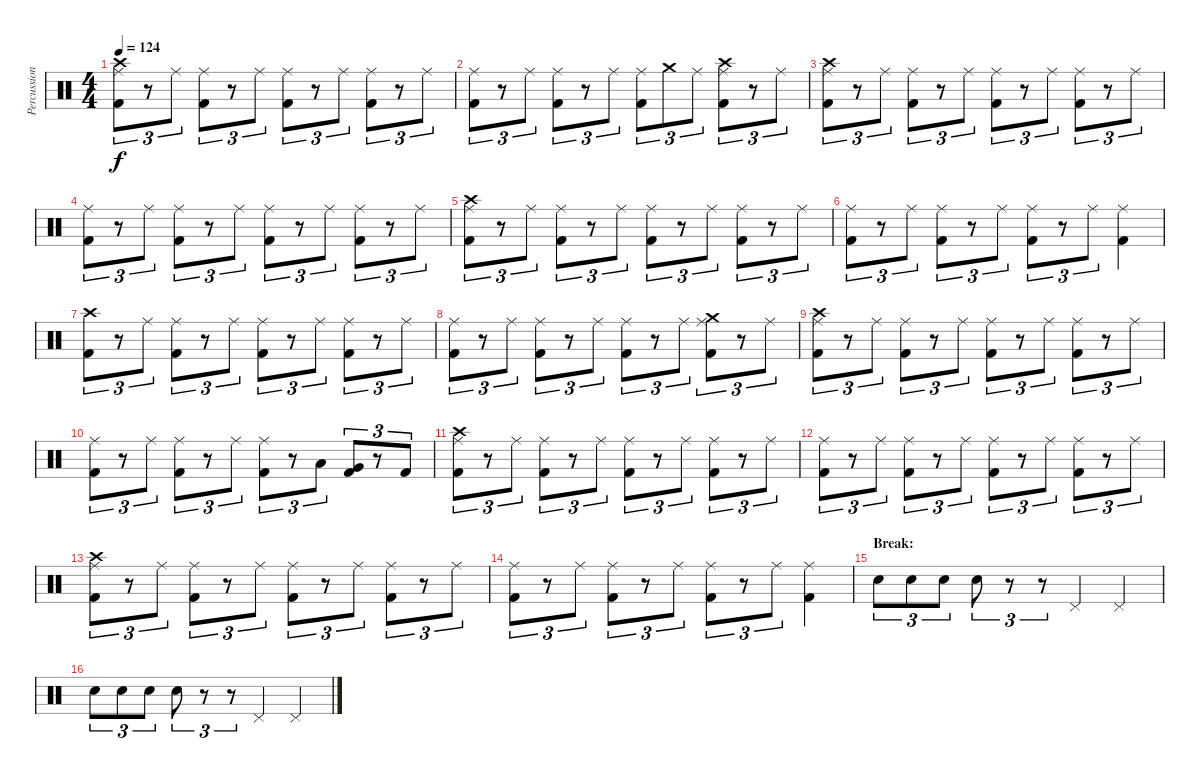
\track ("Percussion" "Percussion") {instrument percussion}
\staff {score}
\articulation defaults
\ts (4 4)
\tempo 124
\clef neutral
\ks c
("Ride (middle)" "Crash high (hit)" "Kick (hit) 2").8{tu (3 2) dy f} r.8{tu (3 2)} "Ride (middle)".8{tu (3 2)} ("Ride (middle)" "Kick (hit) 2").8{tu (3 2)} r.8{tu (3 2)} "Ride (middle)".8{tu (3 2)} ("Ride (middle)" "Kick (hit) 2").8{tu (3 2)} r.8{tu (3 2)} "Ride (middle)".8{tu (3 2)} ("Ride (middle)" "Kick (hit) 2").8{tu (3 2)} r.8{tu (3 2)} "Ride (middle)".8{tu (3 2)} |
("Ride (middle)" "Kick (hit) 2").8{tu (3 2)} r.8{tu (3 2)} "Ride (middle)".8{tu (3 2)} ("Ride (middle)" "Kick (hit) 2").8{tu (3 2)} r.8{tu (3 2)} "Ride (middle)".8{tu (3 2)} ("Ride (middle)" "Kick (hit) 2").8{tu (3 2)} "Crash medium (hit)".8{tu (3 2)} "Ride (middle)".8{tu (3 2)} ("Ride (middle)" "Crash high (hit)" "Kick (hit) 2").8{tu (3 2)} r.8{tu (3 2)} "Ride (middle)".8{tu (3 2)} |
("Ride (middle)" "Crash high (hit)" "Kick (hit) 2").8{tu (3 2)} r.8{tu (3 2)} "Ride (middle)".8{tu (3 2)} ("Ride (middle)" "Kick (hit) 2").8{tu (3 2)} r.8{tu (3 2)} "Ride (middle)".8{tu (3 2)} ("Ride (middle)" "Kick (hit) 2").8{tu (3 2)} r.8{tu (3 2)} "Ride (middle)".8{tu (3 2)} ("Ride (middle)" "Kick (hit) 2").8{tu (3 2)} r.8{tu (3 2)} "Ride (middle)".8{tu (3 2)} |
("Ride (middle)" "Kick (hit) 2").8{tu (3 2)} r.8{tu (3 2)} "Ride (middle)".8{tu (3 2)} ("Ride (middle)" "Kick (hit) 2").8{tu (3 2)} r.8{tu (3 2)} "Ride (middle)".8{tu (3 2)} ("Ride (middle)" "Kick (hit) 2").8{tu (3 2)} r.8{tu (3 2)} "Ride (middle)".8{tu (3 2)} ("Ride (middle)" "Kick (hit) 2").8{tu (3 2)} r.8{tu (3 2)} "Ride (middle)".8{tu (3 2)} |
("Ride (middle)" "Crash high (hit)" "Kick (hit) 2").8{tu (3 2)} r.8{tu (3 2)} "Ride (middle)".8{tu (3 2)} ("Ride (middle)" "Kick (hit) 2").8{tu (3 2)} r.8{tu (3 2)} "Ride (middle)".8{tu (3 2)} ("Ride (middle)" "Kick (hit) 2").8{tu (3 2)} r.8{tu (3 2)} "Ride (middle)".8{tu (3 2)} ("Ride (middle)" "Kick (hit) 2").8{tu (3 2)} r.8{tu (3 2)} "Ride (middle)".8{tu (3 2)} |
("Ride (middle)" "Kick (hit) 2").8{tu (3 2)} r.8{tu (3 2)} "Ride (middle)".8{tu (3 2)} ("Ride (middle)" "Kick (hit) 2").8{tu (3 2)} r.8{tu (3 2)} "Ride (middle)".8{tu (3 2)} ("Ride (middle)" "Kick (hit) 2").8{tu (3 2)} r.8{tu (3 2)} "Ride (middle)".8{tu (3 2)} ("Ride (middle)" "Kick (hit) 2").4 |
("Crash high (hit)" "Kick (hit) 2").8{tu (3 2)} r.8{tu (3 2)} "Ride (middle)".8{tu (3 2)} ("Ride (middle)" "Kick (hit) 2").8{tu (3 2)} r.8{tu (3 2)} "Ride (middle)".8{tu (3 2)} ("Ride (middle)" "Kick (hit) 2").8{tu (3 2)} r.8{tu (3 2)} "Ride (middle)".8{tu (3 2)} ("Ride (middle)" "Kick (hit) 2").8{tu (3 2)} r.8{tu (3 2)} "Ride (middle)".8{tu (3 2)} |
("Ride (middle)" "Kick (hit) 2").8{tu (3 2)} r.8{tu (3 2)} "Ride (middle)".8{tu (3 2)} ("Ride (middle)" "Kick (hit) 2").8{tu (3 2)} r.8{tu (3 2)} "Ride (middle)".8{tu (3 2)} ("Ride (middle)" "Kick (hit) 2").8{tu (3 2)} r.8{tu (3 2)} "Ride (middle)".8{tu (3 2)} ("Ride (middle)" "Crash medium (hit)" "Kick (hit) 2").8{tu (3 2)} r.8{tu (3 2)} "Ride (middle)".8{tu (3 2)} |
("Ride (middle)" "Crash high (hit)" "Kick (hit) 2").8{tu (3 2)} r.8{tu (3 2)} "Ride (middle)".8{tu (3 2)} ("Ride (middle)" "Kick (hit) 2").8{tu (3 2)} r.8{tu (3 2)} "Ride (middle)".8{tu (3 2)} ("Ride (middle)" "Kick (hit) 2").8{tu (3 2)} r.8{tu (3 2)} "Ride (middle)".8{tu (3 2)} ("Ride (middle)" "Kick (hit) 2").8{tu (3 2)} r.8{tu (3 2)} "Ride (middle)".8{tu (3 2)} |
("Ride (middle)" "Kick (hit) 2").8{tu (3 2)} r.8{tu (3 2)} "Ride (middle)".8{tu (3 2)} ("Ride (middle)" "Kick (hit) 2").8{tu (3 2)} r.8{tu (3 2)} "Ride (middle)".8{tu (3 2)} ("Ride (middle)" "Kick (hit) 2").8{tu (3 2)} r.8{tu (3 2)} "Low Tom (hit)".8{tu (3 2)} ("Very Low Tom (hit)" "Kick (hit) 2").8{tu (3 2)} r.8{tu (3 2)} "Kick (hit) 2".8{tu (3 2)} |
("Ride (middle)" "Crash high (hit)" "Kick (hit) 2").8{tu (3 2)} r.8{tu (3 2)} "Ride (middle)".8{tu (3 2)} ("Ride (middle)" "Kick (hit) 2").8{tu (3 2)} r.8{tu (3 2)} "Ride (middle)".8{tu (3 2)} ("Ride (middle)" "Kick (hit) 2").8{tu (3 2)} r.8{tu (3 2)} "Ride (middle)".8{tu (3 2)} ("Ride (middle)" "Kick (hit) 2").8{tu (3 2)} r.8{tu (3 2)} "Ride (middle)".8{tu (3 2)} |
("Ride (middle)" "Kick (hit) 2").8{tu (3 2)} r.8{tu (3 2)} "Ride (middle)".8{tu (3 2)} ("Ride (middle)" "Kick (hit) 2").8{tu (3 2)} r.8{tu (3 2)} "Ride (middle)".8{tu (3 2)} ("Ride (middle)" "Kick (hit) 2").8{tu (3 2)} r.8{tu (3 2)} "Ride (middle)".8{tu (3 2)} ("Ride (middle)" "Kick (hit) 2").8{tu (3 2)} r.8{tu (3 2)} "Ride (middle)".8{tu (3 2)} |
("Ride (middle)" "Crash high (hit)" "Kick (hit) 2").8{tu (3 2)} r.8{tu (3 2)} "Ride (middle)".8{tu (3 2)} ("Ride (middle)" "Kick (hit) 2").8{tu (3 2)} r.8{tu (3 2)} "Ride (middle)".8{tu (3 2)} ("Ride (middle)" "Kick (hit) 2").8{tu (3 2)} r.8{tu (3 2)} "Ride (middle)".8{tu (3 2)} ("Ride (middle)" "Kick (hit) 2").8{tu (3 2)} r.8{tu (3 2)} "Ride (middle)".8{tu (3 2)} |
("Ride (middle)" "Kick (hit) 2").8{tu (3 2)} r.8{tu (3 2)} "Ride (middle)".8{tu (3 2)} ("Ride (middle)" "Kick (hit) 2").8{tu (3 2)} r.8{tu (3 2)} "Ride (middle)".8{tu (3 2)} ("Ride (middle)" "Kick (hit) 2").8{tu (3 2)} r.8{tu (3 2)} "Ride (middle)".8{tu (3 2)} ("Ride (middle)" "Kick (hit) 2").4 |
\section ("" "Break:")
"Snare (hit) 2".8{tu (3 2)} "Snare (hit) 2".8{tu (3 2)} "Snare (hit) 2".8{tu (3 2)} "Snare (hit) 2".8{tu (3 2)} r.8{tu (3 2)} r.8{tu (3 2)} "Pedal Hi-Hat (hit)".4 "Pedal Hi-Hat (hit)".4 |
"Snare (hit) 2".8{tu (3 2)} "Snare (hit) 2".8{tu (3 2)} "Snare (hit) 2".8{tu (3 2)} "Snare (hit) 2".8{tu (3 2)} r.8{tu (3 2)} r.8{tu (3 2)} "Pedal Hi-Hat (hit)".4 "Pedal Hi-Hat (hit)".4
